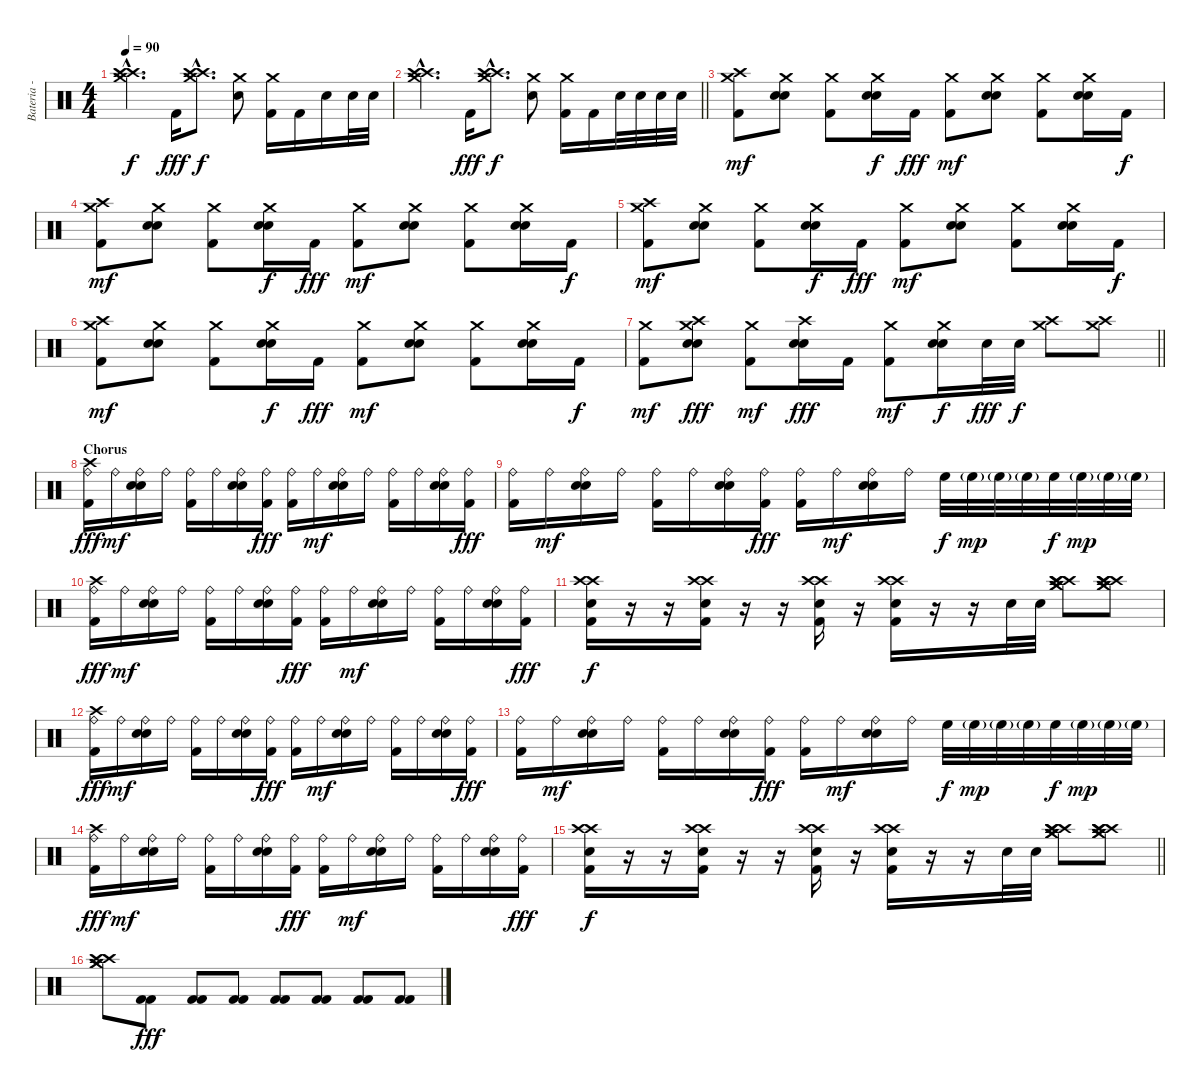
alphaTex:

\track ("Bateria - Larzon" "Bateria - ") {instrument percussion}
\staff {score}
\articulation defaults
\ts (4 4)
\tempo 90
\clef neutral
\ks c
("Crash medium (hit)"{hac} "Crash high (hit)"{hac} "Crash high (hit)"{hac}).4{d dy f} "Kick (hit) 2".16{dy fff} ("Crash medium (hit)"{hac} "Crash high (hit)"{hac} "Crash high (hit)"{hac}).8{d dy f} ("Snare (hit) 2" "Crash medium (hit)").8 ("Kick (hit) 2" "Crash medium (hit)").16 "Kick (hit) 2".16 "Snare (hit) 2".16 "Snare (hit) 2".32 "Snare (hit) 2".32 |
\barLineRight lightlight
("Crash medium (hit)"{hac} "Crash high (hit)"{hac} "Crash high (hit)"{hac}).4{d} "Kick (hit) 2".16{dy fff} ("Crash medium (hit)"{hac} "Crash high (hit)"{hac} "Crash high (hit)"{hac}).8{d dy f} ("Snare (hit) 2" "Crash medium (hit)").8 ("Kick (hit) 2" "Crash medium (hit)").16 "Kick (hit) 2".16 "Snare (hit) 2".32 "Snare (hit) 2".32 "Snare (hit) 2".32 "Snare (hit) 2".32 |
("Kick (hit) 2" "Crash high (hit)" "Crash medium (hit)").8{dy mf} ("Snare (hit) 2" "Snare (hit) 2" "Crash medium (hit)").8 ("Kick (hit) 2" "Crash medium (hit)").8 ("Snare (hit) 2" "Snare (hit) 2" "Crash medium (hit)").16{dy f} "Kick (hit) 2".16{dy fff} ("Kick (hit) 2" "Crash medium (hit)").8{dy mf} ("Snare (hit) 2" "Snare (hit) 2" "Crash medium (hit)").8 ("Kick (hit) 2" "Crash medium (hit)").8 ("Snare (hit) 2" "Snare (hit) 2" "Crash medium (hit)").16 "Kick (hit) 2".16{dy f} |
("Kick (hit) 2" "Crash high (hit)" "Crash medium (hit)").8{dy mf} ("Snare (hit) 2" "Snare (hit) 2" "Crash medium (hit)").8 ("Kick (hit) 2" "Crash medium (hit)").8 ("Snare (hit) 2" "Snare (hit) 2" "Crash medium (hit)").16{dy f} "Kick (hit) 2".16{dy fff} ("Kick (hit) 2" "Crash medium (hit)").8{dy mf} ("Snare (hit) 2" "Snare (hit) 2" "Crash medium (hit)").8 ("Kick (hit) 2" "Crash medium (hit)").8 ("Snare (hit) 2" "Snare (hit) 2" "Crash medium (hit)").16 "Kick (hit) 2".16{dy f} |
("Kick (hit) 2" "Crash high (hit)" "Crash medium (hit)").8{dy mf} ("Snare (hit) 2" "Snare (hit) 2" "Crash medium (hit)").8 ("Kick (hit) 2" "Crash medium (hit)").8 ("Snare (hit) 2" "Snare (hit) 2" "Crash medium (hit)").16{dy f} "Kick (hit) 2".16{dy fff} ("Kick (hit) 2" "Crash medium (hit)").8{dy mf} ("Snare (hit) 2" "Snare (hit) 2" "Crash medium (hit)").8 ("Kick (hit) 2" "Crash medium (hit)").8 ("Snare (hit) 2" "Snare (hit) 2" "Crash medium (hit)").16 "Kick (hit) 2".16{dy f} |
("Kick (hit) 2" "Crash high (hit)" "Crash medium (hit)").8{dy mf} ("Snare (hit) 2" "Snare (hit) 2" "Crash medium (hit)").8 ("Kick (hit) 2" "Crash medium (hit)").8 ("Snare (hit) 2" "Snare (hit) 2" "Crash medium (hit)").16{dy f} "Kick (hit) 2".16{dy fff} ("Kick (hit) 2" "Crash medium (hit)").8{dy mf} ("Snare (hit) 2" "Snare (hit) 2" "Crash medium (hit)").8 ("Kick (hit) 2" "Crash medium (hit)").8 ("Snare (hit) 2" "Snare (hit) 2" "Crash medium (hit)").16 "Kick (hit) 2".16{dy f} |
\barLineRight lightlight
("Kick (hit) 2" "Crash medium (hit)").8{dy mf} ("Snare (hit) 2" "Snare (hit) 2" "Crash high (hit)" "Crash medium (hit)").8{dy fff} ("Kick (hit) 2" "Crash medium (hit)").8{dy mf} ("Snare (hit) 2" "Snare (hit) 2" "Crash high (hit)").16{dy fff} "Kick (hit) 2".16 ("Kick (hit) 2" "Crash medium (hit)").8{dy mf} ("Snare (hit) 2" "Snare (hit) 2" "Crash medium (hit)").16{dy f} "Snare (hit) 2".32{dy fff} "Snare (hit) 2".32{dy f} ("Crash high (hit)" "Crash medium (hit)").8 ("Crash high (hit)" "Crash medium (hit)").8 |
\section ("" "Chorus")
("Kick (hit) 2" "Crash high (hit)" "Ride (bell)").16{dy fff} "Ride (bell)".16{dy mf} ("Snare (hit) 2" "Snare (hit) 2" "Ride (bell)").16 "Ride (bell)".16 ("Kick (hit) 2" "Ride (bell)").16 "Ride (bell)".16 ("Snare (hit) 2" "Snare (hit) 2" "Ride (bell)").16 ("Kick (hit) 2" "Ride (bell)").16{dy fff} ("Kick (hit) 2" "Ride (bell)").16 "Ride (bell)".16{dy mf} ("Snare (hit) 2" "Snare (hit) 2" "Ride (bell)").16 "Ride (bell)".16 ("Kick (hit) 2" "Ride (bell)").16 "Ride (bell)".16 ("Snare (hit) 2" "Snare (hit) 2" "Ride (bell)").16 ("Kick (hit) 2" "Ride (bell)").16{dy fff} |
("Kick (hit) 2" "Ride (bell)").16 "Ride (bell)".16{dy mf} ("Snare (hit) 2" "Snare (hit) 2" "Ride (bell)").16 "Ride (bell)".16 ("Kick (hit) 2" "Ride (bell)").16 "Ride (bell)".16 ("Snare (hit) 2" "Snare (hit) 2" "Ride (bell)").16 ("Kick (hit) 2" "Ride (bell)").16{dy fff} ("Kick (hit) 2" "Ride (bell)").16 "Ride (bell)".16{dy mf} ("Snare (hit) 2" "Snare (hit) 2" "Ride (bell)").16 "Ride (bell)".16 "High Floor Tom (hit)".32{dy f} "High Floor Tom (hit)"{g}.32{dy mp} "High Floor Tom (hit)"{g}.32 "High Floor Tom (hit)"{g}.32 "High Floor Tom (hit)".32{dy f} "High Floor Tom (hit)"{g}.32{dy mp} "High Floor Tom (hit)"{g}.32 "High Floor Tom (hit)"{g}.32 |
("Kick (hit) 2" "Crash high (hit)" "Ride (bell)").16{dy fff} "Ride (bell)".16{dy mf} ("Snare (hit) 2" "Snare (hit) 2" "Ride (bell)").16 "Ride (bell)".16 ("Kick (hit) 2" "Ride (bell)").16 "Ride (bell)".16 ("Snare (hit) 2" "Snare (hit) 2" "Ride (bell)").16 ("Kick (hit) 2" "Ride (bell)").16{dy fff} ("Kick (hit) 2" "Ride (bell)").16 "Ride (bell)".16{dy mf} ("Snare (hit) 2" "Snare (hit) 2" "Ride (bell)").16 "Ride (bell)".16 ("Kick (hit) 2" "Ride (bell)").16 "Ride (bell)".16 ("Snare (hit) 2" "Snare (hit) 2" "Ride (bell)").16 ("Kick (hit) 2" "Ride (bell)").16{dy fff} |
("Crash high (hit)" "Crash high (hit)" "Snare (hit) 2" "Kick (hit) 2").16{dy f} r.16 r.16 ("Crash high (hit)" "Crash high (hit)" "Snare (hit) 2" "Kick (hit) 2").16 r.16 r.16 ("Crash high (hit)" "Crash high (hit)" "Snare (hit) 2" "Kick (hit) 2").16 r.16 ("Crash high (hit)" "Crash high (hit)" "Snare (hit) 2" "Kick (hit) 2").16 r.16 r.16 "Snare (hit) 2".32 "Snare (hit) 2".32 ("Crash high (hit)" "Crash high (hit)" "Crash high (hit)" "Crash medium (hit)" "Crash medium (hit)").8 ("Crash high (hit)" "Crash high (hit)" "Crash high (hit)" "Crash medium (hit)" "Crash medium (hit)").8 |
("Kick (hit) 2" "Crash high (hit)" "Ride (bell)").16{dy fff} "Ride (bell)".16{dy mf} ("Snare (hit) 2" "Snare (hit) 2" "Ride (bell)").16 "Ride (bell)".16 ("Kick (hit) 2" "Ride (bell)").16 "Ride (bell)".16 ("Snare (hit) 2" "Snare (hit) 2" "Ride (bell)").16 ("Kick (hit) 2" "Ride (bell)").16{dy fff} ("Kick (hit) 2" "Ride (bell)").16 "Ride (bell)".16{dy mf} ("Snare (hit) 2" "Snare (hit) 2" "Ride (bell)").16 "Ride (bell)".16 ("Kick (hit) 2" "Ride (bell)").16 "Ride (bell)".16 ("Snare (hit) 2" "Snare (hit) 2" "Ride (bell)").16 ("Kick (hit) 2" "Ride (bell)").16{dy fff} |
("Kick (hit) 2" "Ride (bell)").16 "Ride (bell)".16{dy mf} ("Snare (hit) 2" "Snare (hit) 2" "Ride (bell)").16 "Ride (bell)".16 ("Kick (hit) 2" "Ride (bell)").16 "Ride (bell)".16 ("Snare (hit) 2" "Snare (hit) 2" "Ride (bell)").16 ("Kick (hit) 2" "Ride (bell)").16{dy fff} ("Kick (hit) 2" "Ride (bell)").16 "Ride (bell)".16{dy mf} ("Snare (hit) 2" "Snare (hit) 2" "Ride (bell)").16 "Ride (bell)".16 "High Floor Tom (hit)".32{dy f} "High Floor Tom (hit)"{g}.32{dy mp} "High Floor Tom (hit)"{g}.32 "High Floor Tom (hit)"{g}.32 "High Floor Tom (hit)".32{dy f} "High Floor Tom (hit)"{g}.32{dy mp} "High Floor Tom (hit)"{g}.32 "High Floor Tom (hit)"{g}.32 |
("Kick (hit) 2" "Crash high (hit)" "Ride (bell)").16{dy fff} "Ride (bell)".16{dy mf} ("Snare (hit) 2" "Snare (hit) 2" "Ride (bell)").16 "Ride (bell)".16 ("Kick (hit) 2" "Ride (bell)").16 "Ride (bell)".16 ("Snare (hit) 2" "Snare (hit) 2" "Ride (bell)").16 ("Kick (hit) 2" "Ride (bell)").16{dy fff} ("Kick (hit) 2" "Ride (bell)").16 "Ride (bell)".16{dy mf} ("Snare (hit) 2" "Snare (hit) 2" "Ride (bell)").16 "Ride (bell)".16 ("Kick (hit) 2" "Ride (bell)").16 "Ride (bell)".16 ("Snare (hit) 2" "Snare (hit) 2" "Ride (bell)").16 ("Kick (hit) 2" "Ride (bell)").16{dy fff} |
\barLineRight lightlight
("Crash high (hit)" "Crash high (hit)" "Snare (hit) 2" "Kick (hit) 2").16{dy f} r.16 r.16 ("Crash high (hit)" "Crash high (hit)" "Snare (hit) 2" "Kick (hit) 2").16 r.16 r.16 ("Crash high (hit)" "Crash high (hit)" "Snare (hit) 2" "Kick (hit) 2").16 r.16 ("Crash high (hit)" "Crash high (hit)" "Snare (hit) 2" "Kick (hit) 2").16 r.16 r.16 "Snare (hit) 2".32 "Snare (hit) 2".32 ("Crash high (hit)" "Crash high (hit)" "Crash high (hit)" "Crash medium (hit)" "Crash medium (hit)").8 ("Crash high (hit)" "Crash high (hit)" "Crash high (hit)" "Crash medium (hit)" "Crash medium (hit)").8 |
("Crash high (hit)" "Crash high (hit)" "Crash medium (hit)" "Crash medium (hit)").8 ("Kick (hit) 2" "Kick (hit) 2").8{dy fff} ("Kick (hit) 2" "Kick (hit) 2").8 ("Kick (hit) 2" "Kick (hit) 2").8 ("Kick (hit) 2" "Kick (hit) 2").8 ("Kick (hit) 2" "Kick (hit) 2").8 ("Kick (hit) 2" "Kick (hit) 2").8 ("Kick (hit) 2" "Kick (hit) 2").8
